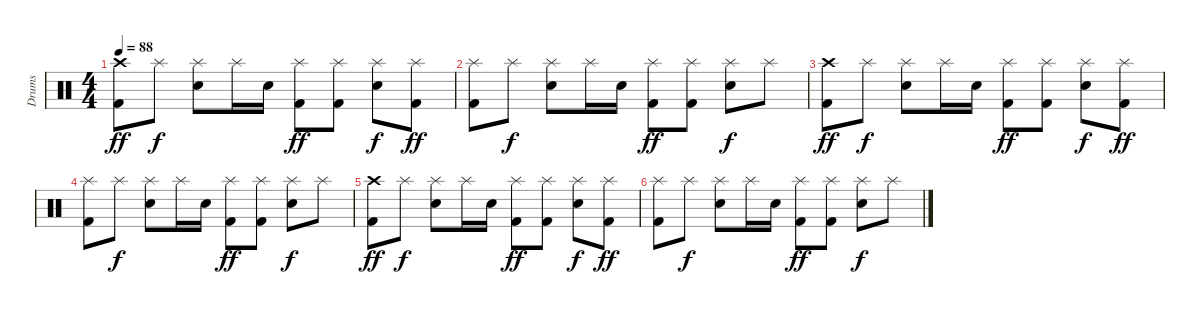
\track ("Drums" "Drums") {instrument percussion}
\staff {score}
\articulation defaults
\ts (4 4)
\tempo 88
\clef neutral
\ks c
("Crash high (hit)" "Kick (hit) 2").8{dy ff} "Splash (hit)".8{dy f} ("Splash (hit)" "Electric Snare (hit)").8 "Splash (hit)".16 "Electric Snare (hit)".16 ("Splash (hit)" "Kick (hit) 2").8{dy ff} ("Splash (hit)" "Kick (hit) 2").8 ("Splash (hit)" "Electric Snare (hit)").8{dy f} ("Splash (hit)" "Kick (hit) 2").8{dy ff} |
("Splash (hit)" "Kick (hit) 2").8 "Splash (hit)".8{dy f} ("Splash (hit)" "Electric Snare (hit)").8 "Splash (hit)".16 "Electric Snare (hit)".16 ("Splash (hit)" "Kick (hit) 2").8{dy ff} ("Splash (hit)" "Kick (hit) 2").8 ("Splash (hit)" "Electric Snare (hit)").8{dy f} "Splash (hit)".8 |
("Crash high (hit)" "Kick (hit) 2").8{dy ff} "Splash (hit)".8{dy f} ("Splash (hit)" "Electric Snare (hit)").8 "Splash (hit)".16 "Electric Snare (hit)".16 ("Splash (hit)" "Kick (hit) 2").8{dy ff} ("Splash (hit)" "Kick (hit) 2").8 ("Splash (hit)" "Electric Snare (hit)").8{dy f} ("Splash (hit)" "Kick (hit) 2").8{dy ff} |
("Splash (hit)" "Kick (hit) 2").8 "Splash (hit)".8{dy f} ("Splash (hit)" "Electric Snare (hit)").8 "Splash (hit)".16 "Electric Snare (hit)".16 ("Splash (hit)" "Kick (hit) 2").8{dy ff} ("Splash (hit)" "Kick (hit) 2").8 ("Splash (hit)" "Electric Snare (hit)").8{dy f} "Splash (hit)".8 |
("Crash high (hit)" "Kick (hit) 2").8{dy ff} "Splash (hit)".8{dy f} ("Splash (hit)" "Electric Snare (hit)").8 "Splash (hit)".16 "Electric Snare (hit)".16 ("Splash (hit)" "Kick (hit) 2").8{dy ff} ("Splash (hit)" "Kick (hit) 2").8 ("Splash (hit)" "Electric Snare (hit)").8{dy f} ("Splash (hit)" "Kick (hit) 2").8{dy ff} |
("Splash (hit)" "Kick (hit) 2").8 "Splash (hit)".8{dy f} ("Splash (hit)" "Electric Snare (hit)").8 "Splash (hit)".16 "Electric Snare (hit)".16 ("Splash (hit)" "Kick (hit) 2").8{dy ff} ("Splash (hit)" "Kick (hit) 2").8 ("Splash (hit)" "Electric Snare (hit)").8{dy f} "Splash (hit)".8
